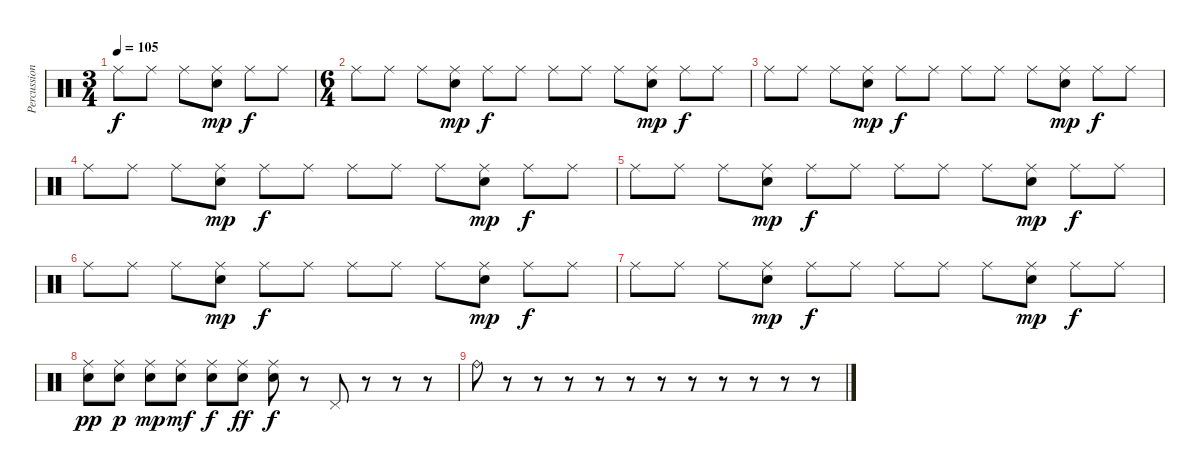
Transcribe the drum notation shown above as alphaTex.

\track ("Percussions" "Percussion") {instrument percussion}
\staff {score}
\articulation defaults
\ts (3 4)
\tempo 105
\clef neutral
\ks c "Ride (middle)".8{dy f} "Ride (middle)".8 "Ride (middle)".8
("Electric Snare (hit)" "Ride (middle)").8{dy mp} "Ride (middle)".8{dy f} "Ride (middle)".8 |
\ts (6 4)
"Ride (middle)".8 "Ride (middle)".8 "Ride (middle)".8 ("Electric Snare (hit)" "Ride (middle)").8{dy mp} "Ride (middle)".8{dy f} "Ride (middle)".8 "Ride (middle)".8 "Ride (middle)".8 "Ride (middle)".8 ("Electric Snare (hit)" "Ride (middle)").8{dy mp} "Ride (middle)".8{dy f} "Ride (middle)".8 |
"Ride (middle)".8 "Ride (middle)".8 "Ride (middle)".8 ("Electric Snare (hit)" "Ride (middle)").8{dy mp} "Ride (middle)".8{dy f} "Ride (middle)".8 "Ride (middle)".8 "Ride (middle)".8 "Ride (middle)".8 ("Electric Snare (hit)" "Ride (middle)").8{dy mp} "Ride (middle)".8{dy f} "Ride (middle)".8 |
"Ride (middle)".8 "Ride (middle)".8 "Ride (middle)".8 ("Electric Snare (hit)" "Ride (middle)").8{dy mp} "Ride (middle)".8{dy f} "Ride (middle)".8 "Ride (middle)".8 "Ride (middle)".8 "Ride (middle)".8 ("Electric Snare (hit)" "Ride (middle)").8{dy mp} "Ride (middle)".8{dy f} "Ride (middle)".8 |
"Ride (middle)".8 "Ride (middle)".8 "Ride (middle)".8 ("Electric Snare (hit)" "Ride (middle)").8{dy mp} "Ride (middle)".8{dy f} "Ride (middle)".8 "Ride (middle)".8 "Ride (middle)".8 "Ride (middle)".8 ("Electric Snare (hit)" "Ride (middle)").8{dy mp} "Ride (middle)".8{dy f} "Ride (middle)".8 |
"Ride (middle)".8 "Ride (middle)".8 "Ride (middle)".8 ("Electric Snare (hit)" "Ride (middle)").8{dy mp} "Ride (middle)".8{dy f} "Ride (middle)".8 "Ride (middle)".8 "Ride (middle)".8 "Ride (middle)".8 ("Electric Snare (hit)" "Ride (middle)").8{dy mp} "Ride (middle)".8{dy f} "Ride (middle)".8 |
"Ride (middle)".8 "Ride (middle)".8 "Ride (middle)".8 ("Electric Snare (hit)" "Ride (middle)").8{dy mp} "Ride (middle)".8{dy f} "Ride (middle)".8 "Ride (middle)".8 "Ride (middle)".8 "Ride (middle)".8 ("Electric Snare (hit)" "Ride (middle)").8{dy mp} "Ride (middle)".8{dy f} "Ride (middle)".8 |
("Ride (middle)" "Electric Snare (hit)").8{dy pp} ("Ride (middle)" "Electric Snare (hit)").8{dy p} ("Ride (middle)" "Electric Snare (hit)").8{dy mp} ("Ride (middle)" "Electric Snare (hit)").8{dy mf} ("Ride (middle)" "Electric Snare (hit)").8{dy f} ("Ride (middle)" "Electric Snare (hit)").8{dy ff} ("Ride (middle)" "Electric Snare (hit)").8{dy f} r.8 "Pedal Hi-Hat (hit)".8 r.8 r.8 r.8 |
"Ride (bell)".8 r.8 r.8 r.8 r.8 r.8 r.8 r.8 r.8 r.8 r.8 r.8
